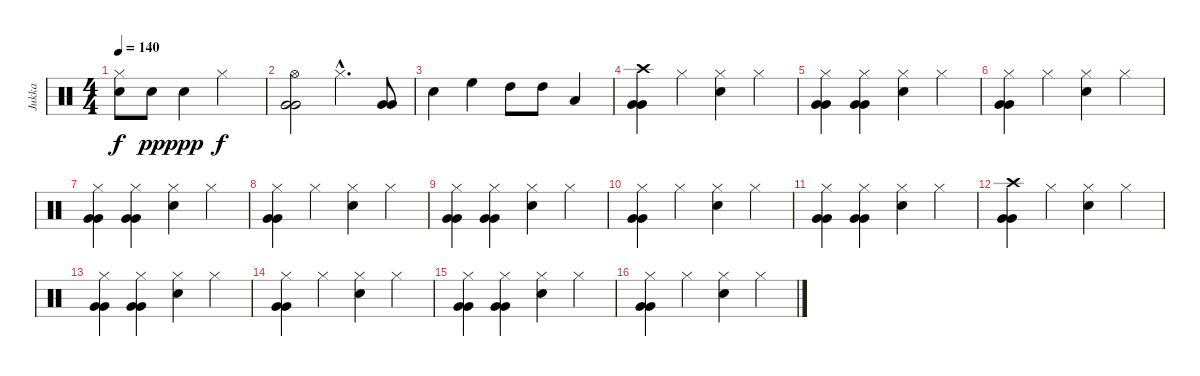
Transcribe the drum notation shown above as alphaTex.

\track ("Jukka" "Jukka") {instrument percussion}
\staff {score}
\articulation defaults
\ts (4 4)
\tempo 140
\clef neutral
\ks c
("Hi-Hat (closed)" "Electric Snare (hit)").8{dy f} "Electric Snare (hit)".8{dy pp} "Electric Snare (hit)".4{dy ppp} "Hi-Hat (closed)".2{dy f} |
("Hi-Hat (open)" "Very Low Tom (hit)" "Very Low Tom (hit)").2 "Hi-Hat (closed)"{hac}.4{d} ("Very Low Tom (hit)" "Very Low Tom (hit)").8 |
"Electric Snare (hit)".4 "High Floor Tom (hit)".4 "High Tom (hit)".8 "High Tom (hit)".8 "Low Tom (hit)".4 |
("Crash high (hit)" "Very Low Tom (hit)" "Very Low Tom (hit)").4 "Hi-Hat (closed)".4 ("Hi-Hat (closed)" "Electric Snare (hit)").4 "Hi-Hat (closed)".4 |
("Hi-Hat (closed)" "Very Low Tom (hit)" "Very Low Tom (hit)").4 ("Hi-Hat (closed)" "Very Low Tom (hit)" "Very Low Tom (hit)").4 ("Hi-Hat (closed)" "Electric Snare (hit)").4 "Hi-Hat (closed)".4 |
("Hi-Hat (closed)" "Very Low Tom (hit)" "Very Low Tom (hit)").4 "Hi-Hat (closed)".4 ("Hi-Hat (closed)" "Electric Snare (hit)").4 "Hi-Hat (closed)".4 |
("Hi-Hat (closed)" "Very Low Tom (hit)" "Very Low Tom (hit)").4 ("Hi-Hat (closed)" "Very Low Tom (hit)" "Very Low Tom (hit)").4 ("Hi-Hat (closed)" "Electric Snare (hit)").4 "Hi-Hat (closed)".4 |
("Hi-Hat (closed)" "Very Low Tom (hit)" "Very Low Tom (hit)").4 "Hi-Hat (closed)".4 ("Hi-Hat (closed)" "Electric Snare (hit)").4 "Hi-Hat (closed)".4 |
("Hi-Hat (closed)" "Very Low Tom (hit)" "Very Low Tom (hit)").4 ("Hi-Hat (closed)" "Very Low Tom (hit)" "Very Low Tom (hit)").4 ("Hi-Hat (closed)" "Electric Snare (hit)").4 "Hi-Hat (closed)".4 |
("Hi-Hat (closed)" "Very Low Tom (hit)" "Very Low Tom (hit)").4 "Hi-Hat (closed)".4 ("Hi-Hat (closed)" "Electric Snare (hit)").4 "Hi-Hat (closed)".4 |
("Hi-Hat (closed)" "Very Low Tom (hit)" "Very Low Tom (hit)").4 ("Hi-Hat (closed)" "Very Low Tom (hit)" "Very Low Tom (hit)").4 ("Hi-Hat (closed)" "Electric Snare (hit)").4 "Hi-Hat (closed)".4 |
("Crash high (hit)" "Very Low Tom (hit)" "Very Low Tom (hit)").4 "Hi-Hat (closed)".4 ("Hi-Hat (closed)" "Electric Snare (hit)").4 "Hi-Hat (closed)".4 |
("Hi-Hat (closed)" "Very Low Tom (hit)" "Very Low Tom (hit)").4 ("Hi-Hat (closed)" "Very Low Tom (hit)" "Very Low Tom (hit)").4 ("Hi-Hat (closed)" "Electric Snare (hit)").4 "Hi-Hat (closed)".4 |
("Hi-Hat (closed)" "Very Low Tom (hit)" "Very Low Tom (hit)").4 "Hi-Hat (closed)".4 ("Hi-Hat (closed)" "Electric Snare (hit)").4 "Hi-Hat (closed)".4 |
("Hi-Hat (closed)" "Very Low Tom (hit)" "Very Low Tom (hit)").4 ("Hi-Hat (closed)" "Very Low Tom (hit)" "Very Low Tom (hit)").4 ("Hi-Hat (closed)" "Electric Snare (hit)").4 "Hi-Hat (closed)".4 |
("Hi-Hat (closed)" "Very Low Tom (hit)" "Very Low Tom (hit)").4 "Hi-Hat (closed)".4 ("Hi-Hat (closed)" "Electric Snare (hit)").4 "Hi-Hat (closed)".4
